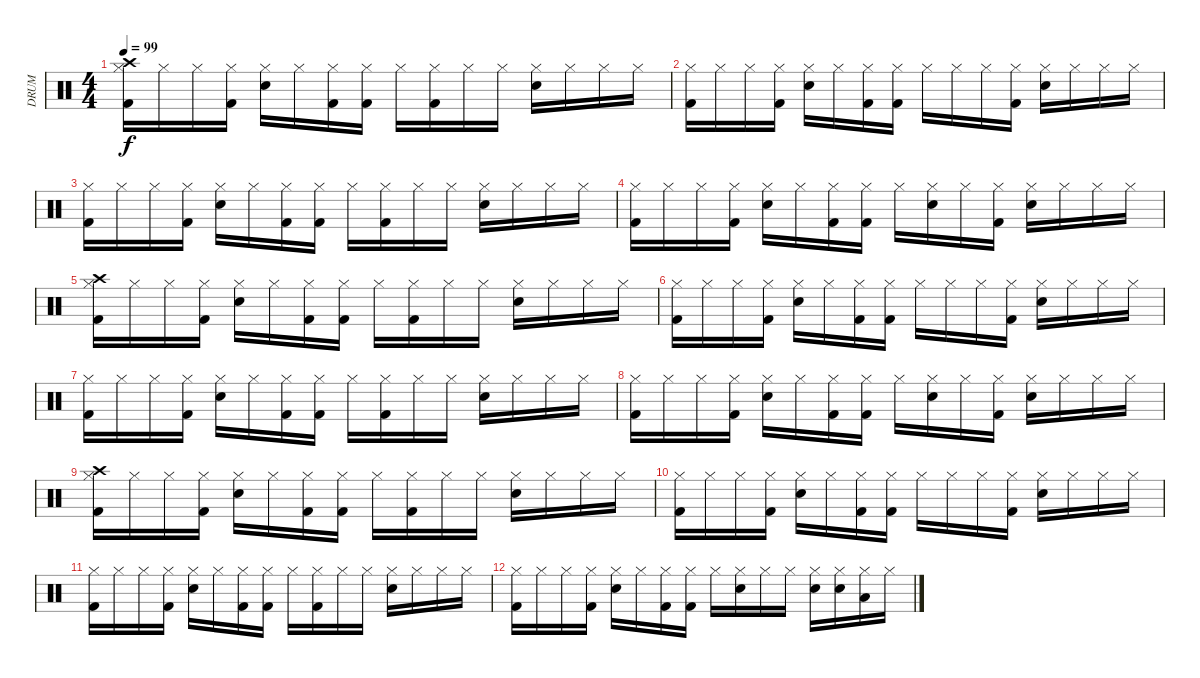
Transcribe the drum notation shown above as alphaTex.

\track ("DRUM" "DRUM") {instrument percussion}
\staff {score}
\articulation defaults
\ts (4 4)
\tempo 99
\clef neutral
\ks c
("Crash high (hit)" "Hi-Hat (closed)" "Kick (hit) 2").16{dy f} "Hi-Hat (closed)".16 "Hi-Hat (closed)".16 ("Hi-Hat (closed)" "Kick (hit) 2").16 ("Hi-Hat (closed)" "Snare (hit) 2").16 "Hi-Hat (closed)".16 ("Hi-Hat (closed)" "Kick (hit) 2").16 ("Hi-Hat (closed)" "Kick (hit) 2").16 "Hi-Hat (closed)".16 ("Hi-Hat (closed)" "Kick (hit) 2").16 "Hi-Hat (closed)".16 "Hi-Hat (closed)".16 ("Hi-Hat (closed)" "Snare (hit) 2").16 "Hi-Hat (closed)".16 "Hi-Hat (closed)".16 "Hi-Hat (closed)".16 |
("Hi-Hat (closed)" "Kick (hit) 2").16 "Hi-Hat (closed)".16 "Hi-Hat (closed)".16 ("Hi-Hat (closed)" "Kick (hit) 2").16 ("Hi-Hat (closed)" "Snare (hit) 2").16 "Hi-Hat (closed)".16 ("Hi-Hat (closed)" "Kick (hit) 2").16 ("Hi-Hat (closed)" "Kick (hit) 2").16 "Hi-Hat (closed)".16 "Hi-Hat (closed)".16 "Hi-Hat (closed)".16 ("Hi-Hat (closed)" "Kick (hit) 2").16 ("Hi-Hat (closed)" "Snare (hit) 2").16 "Hi-Hat (closed)".16 "Hi-Hat (closed)".16 "Hi-Hat (closed)".16 |
("Hi-Hat (closed)" "Kick (hit) 2").16 "Hi-Hat (closed)".16 "Hi-Hat (closed)".16 ("Hi-Hat (closed)" "Kick (hit) 2").16 ("Hi-Hat (closed)" "Snare (hit) 2").16 "Hi-Hat (closed)".16 ("Hi-Hat (closed)" "Kick (hit) 2").16 ("Hi-Hat (closed)" "Kick (hit) 2").16 "Hi-Hat (closed)".16 ("Hi-Hat (closed)" "Kick (hit) 2").16 "Hi-Hat (closed)".16 "Hi-Hat (closed)".16 ("Hi-Hat (closed)" "Snare (hit) 2").16 "Hi-Hat (closed)".16 "Hi-Hat (closed)".16 "Hi-Hat (closed)".16 |
("Hi-Hat (closed)" "Kick (hit) 2").16 "Hi-Hat (closed)".16 "Hi-Hat (closed)".16 ("Hi-Hat (closed)" "Kick (hit) 2").16 ("Hi-Hat (closed)" "Snare (hit) 2").16 "Hi-Hat (closed)".16 ("Hi-Hat (closed)" "Kick (hit) 2").16 ("Hi-Hat (closed)" "Kick (hit) 2").16 "Hi-Hat (closed)".16 ("Hi-Hat (closed)" "Snare (hit) 2").16 "Hi-Hat (closed)".16 ("Hi-Hat (closed)" "Kick (hit) 2").16 ("Hi-Hat (closed)" "Snare (hit) 2").16 "Hi-Hat (closed)".16 "Hi-Hat (closed)".16 "Hi-Hat (closed)".16 |
("Crash high (hit)" "Hi-Hat (closed)" "Kick (hit) 2").16 "Hi-Hat (closed)".16 "Hi-Hat (closed)".16 ("Hi-Hat (closed)" "Kick (hit) 2").16 ("Hi-Hat (closed)" "Snare (hit) 2").16 "Hi-Hat (closed)".16 ("Hi-Hat (closed)" "Kick (hit) 2").16 ("Hi-Hat (closed)" "Kick (hit) 2").16 "Hi-Hat (closed)".16 ("Hi-Hat (closed)" "Kick (hit) 2").16 "Hi-Hat (closed)".16 "Hi-Hat (closed)".16 ("Hi-Hat (closed)" "Snare (hit) 2").16 "Hi-Hat (closed)".16 "Hi-Hat (closed)".16 "Hi-Hat (closed)".16 |
("Hi-Hat (closed)" "Kick (hit) 2").16 "Hi-Hat (closed)".16 "Hi-Hat (closed)".16 ("Hi-Hat (closed)" "Kick (hit) 2").16 ("Hi-Hat (closed)" "Snare (hit) 2").16 "Hi-Hat (closed)".16 ("Hi-Hat (closed)" "Kick (hit) 2").16 ("Hi-Hat (closed)" "Kick (hit) 2").16 "Hi-Hat (closed)".16 "Hi-Hat (closed)".16 "Hi-Hat (closed)".16 ("Hi-Hat (closed)" "Kick (hit) 2").16 ("Hi-Hat (closed)" "Snare (hit) 2").16 "Hi-Hat (closed)".16 "Hi-Hat (closed)".16 "Hi-Hat (closed)".16 |
("Hi-Hat (closed)" "Kick (hit) 2").16 "Hi-Hat (closed)".16 "Hi-Hat (closed)".16 ("Hi-Hat (closed)" "Kick (hit) 2").16 ("Hi-Hat (closed)" "Snare (hit) 2").16 "Hi-Hat (closed)".16 ("Hi-Hat (closed)" "Kick (hit) 2").16 ("Hi-Hat (closed)" "Kick (hit) 2").16 "Hi-Hat (closed)".16 ("Hi-Hat (closed)" "Kick (hit) 2").16 "Hi-Hat (closed)".16 "Hi-Hat (closed)".16 ("Hi-Hat (closed)" "Snare (hit) 2").16 "Hi-Hat (closed)".16 "Hi-Hat (closed)".16 "Hi-Hat (closed)".16 |
("Hi-Hat (closed)" "Kick (hit) 2").16 "Hi-Hat (closed)".16 "Hi-Hat (closed)".16 ("Hi-Hat (closed)" "Kick (hit) 2").16 ("Hi-Hat (closed)" "Snare (hit) 2").16 "Hi-Hat (closed)".16 ("Hi-Hat (closed)" "Kick (hit) 2").16 ("Hi-Hat (closed)" "Kick (hit) 2").16 "Hi-Hat (closed)".16 ("Hi-Hat (closed)" "Snare (hit) 2").16 "Hi-Hat (closed)".16 ("Hi-Hat (closed)" "Kick (hit) 2").16 ("Hi-Hat (closed)" "Snare (hit) 2").16 "Hi-Hat (closed)".16 "Hi-Hat (closed)".16 "Hi-Hat (closed)".16 |
("Crash high (hit)" "Hi-Hat (closed)" "Kick (hit) 2").16 "Hi-Hat (closed)".16 "Hi-Hat (closed)".16 ("Hi-Hat (closed)" "Kick (hit) 2").16 ("Hi-Hat (closed)" "Snare (hit) 2").16 "Hi-Hat (closed)".16 ("Hi-Hat (closed)" "Kick (hit) 2").16 ("Hi-Hat (closed)" "Kick (hit) 2").16 "Hi-Hat (closed)".16 ("Hi-Hat (closed)" "Kick (hit) 2").16 "Hi-Hat (closed)".16 "Hi-Hat (closed)".16 ("Hi-Hat (closed)" "Snare (hit) 2").16 "Hi-Hat (closed)".16 "Hi-Hat (closed)".16 "Hi-Hat (closed)".16 |
("Hi-Hat (closed)" "Kick (hit) 2").16 "Hi-Hat (closed)".16 "Hi-Hat (closed)".16 ("Hi-Hat (closed)" "Kick (hit) 2").16 ("Hi-Hat (closed)" "Snare (hit) 2").16 "Hi-Hat (closed)".16 ("Hi-Hat (closed)" "Kick (hit) 2").16 ("Hi-Hat (closed)" "Kick (hit) 2").16 "Hi-Hat (closed)".16 "Hi-Hat (closed)".16 "Hi-Hat (closed)".16 ("Hi-Hat (closed)" "Kick (hit) 2").16 ("Hi-Hat (closed)" "Snare (hit) 2").16 "Hi-Hat (closed)".16 "Hi-Hat (closed)".16 "Hi-Hat (closed)".16 |
("Hi-Hat (closed)" "Kick (hit) 2").16 "Hi-Hat (closed)".16 "Hi-Hat (closed)".16 ("Hi-Hat (closed)" "Kick (hit) 2").16 ("Hi-Hat (closed)" "Snare (hit) 2").16 "Hi-Hat (closed)".16 ("Hi-Hat (closed)" "Kick (hit) 2").16 ("Hi-Hat (closed)" "Kick (hit) 2").16 "Hi-Hat (closed)".16 ("Hi-Hat (closed)" "Kick (hit) 2").16 "Hi-Hat (closed)".16 "Hi-Hat (closed)".16 ("Hi-Hat (closed)" "Snare (hit) 2").16 "Hi-Hat (closed)".16 "Hi-Hat (closed)".16 "Hi-Hat (closed)".16 |
("Hi-Hat (closed)" "Kick (hit) 2").16 "Hi-Hat (closed)".16 "Hi-Hat (closed)".16 ("Hi-Hat (closed)" "Kick (hit) 2").16 ("Hi-Hat (closed)" "Snare (hit) 2").16 "Hi-Hat (closed)".16 ("Hi-Hat (closed)" "Kick (hit) 2").16 ("Hi-Hat (closed)" "Kick (hit) 2").16 "Hi-Hat (closed)".16 ("Hi-Hat (closed)" "Snare (hit) 2").16 "Hi-Hat (closed)".16 "Hi-Hat (closed)".16 ("Hi-Hat (closed)" "Snare (hit) 2").16 ("Hi-Hat (closed)" "Snare (hit) 2").16 ("Hi-Hat (closed)" "Low Tom (hit)").16 "Hi-Hat (closed)".16
